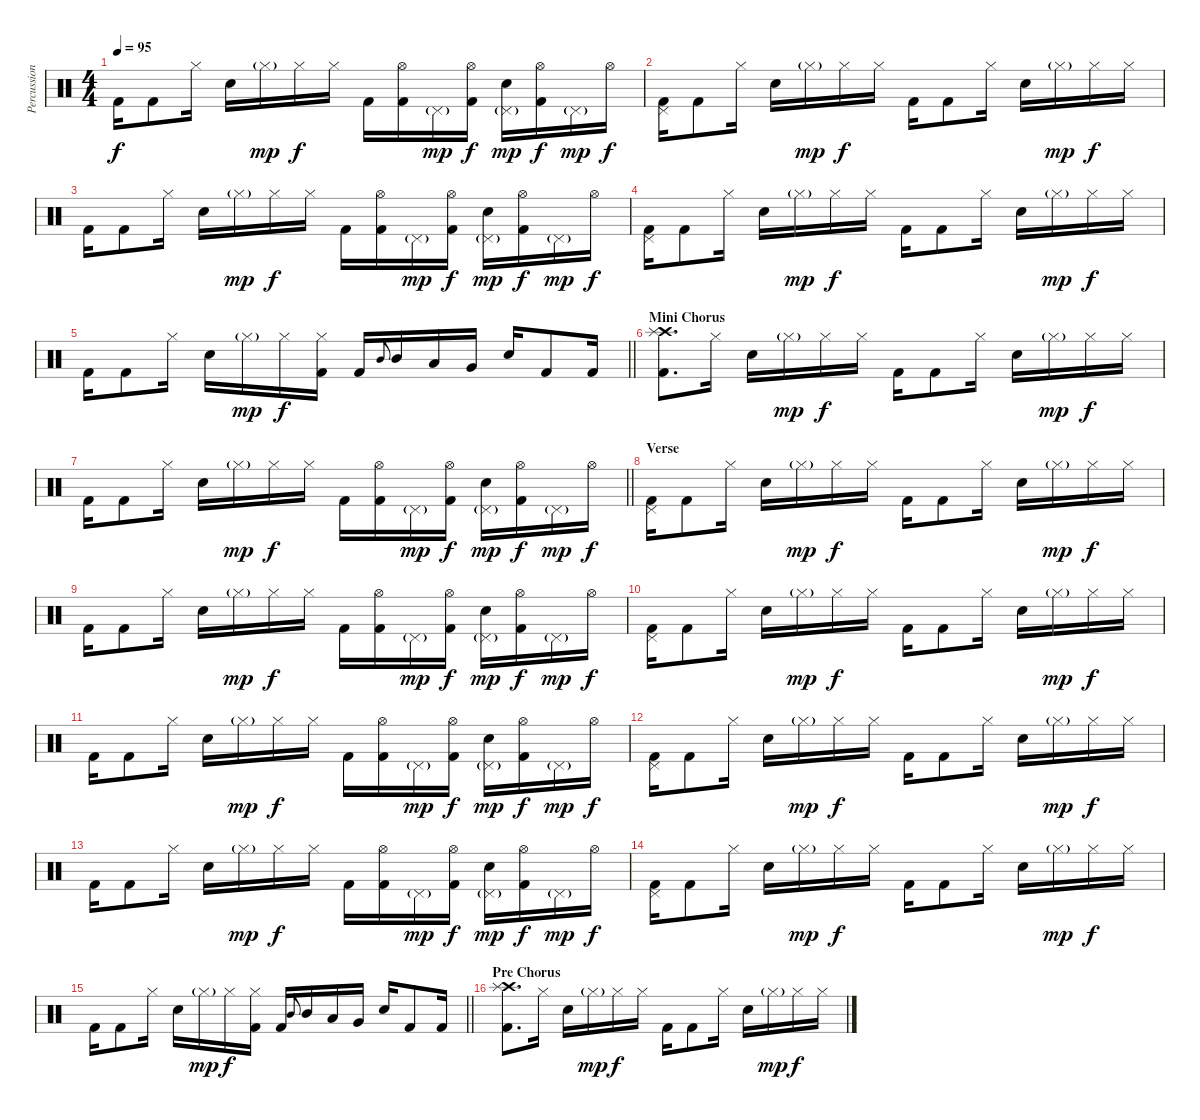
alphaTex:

\track ("Percussion" "Percussion") {instrument percussion}
\staff {score}
\articulation defaults
\ts (4 4)
\tempo 95
\clef neutral
\ks c "Kick (hit) 2".16{dy f} "Kick (hit) 2".8 "Hi-Hat (closed)".16 "Electric Snare (hit)".16 "Hi-Hat (closed)"{g}.16{dy mp} "Hi-Hat (closed)".16{dy f} "Hi-Hat (closed)".16 "Kick (hit) 2".16
("Hi-Hat (open)" "Kick (hit) 2").16 "Pedal Hi-Hat (hit)"{g}.16{dy mp} ("Hi-Hat (open)" "Kick (hit) 2").16{dy f} ("Pedal Hi-Hat (hit)"{g} "Electric Snare (hit)").16{dy mp} ("Hi-Hat (open)" "Kick (hit) 2").16{dy f} "Pedal Hi-Hat (hit)"{g}.16{dy mp} "Hi-Hat (open)".16{dy f} |
("Pedal Hi-Hat (hit)" "Kick (hit) 2").16 "Kick (hit) 2".8 "Hi-Hat (closed)".16 "Electric Snare (hit)".16 "Hi-Hat (closed)"{g}.16{dy mp} "Hi-Hat (closed)".16{dy f} "Hi-Hat (closed)".16 "Kick (hit) 2".16 "Kick (hit) 2".8 "Hi-Hat (closed)".16 "Electric Snare (hit)".16 "Hi-Hat (closed)"{g}.16{dy mp} "Hi-Hat (closed)".16{dy f} "Hi-Hat (closed)".16 |
"Kick (hit) 2".16 "Kick (hit) 2".8 "Hi-Hat (closed)".16 "Electric Snare (hit)".16 "Hi-Hat (closed)"{g}.16{dy mp} "Hi-Hat (closed)".16{dy f} "Hi-Hat (closed)".16 "Kick (hit) 2".16 ("Hi-Hat (open)" "Kick (hit) 2").16 "Pedal Hi-Hat (hit)"{g}.16{dy mp} ("Hi-Hat (open)" "Kick (hit) 2").16{dy f} ("Pedal Hi-Hat (hit)"{g} "Electric Snare (hit)").16{dy mp} ("Hi-Hat (open)" "Kick (hit) 2").16{dy f} "Pedal Hi-Hat (hit)"{g}.16{dy mp} "Hi-Hat (open)".16{dy f} |
("Pedal Hi-Hat (hit)" "Kick (hit) 2").16 "Kick (hit) 2".8 "Hi-Hat (closed)".16 "Electric Snare (hit)".16 "Hi-Hat (closed)"{g}.16{dy mp} "Hi-Hat (closed)".16{dy f} "Hi-Hat (closed)".16 "Kick (hit) 2".16 "Kick (hit) 2".8 "Hi-Hat (closed)".16 "Electric Snare (hit)".16 "Hi-Hat (closed)"{g}.16{dy mp} "Hi-Hat (closed)".16{dy f} "Hi-Hat (closed)".16 |
\barLineRight lightlight "Kick (hit) 2".16 "Kick (hit) 2".8 "Hi-Hat (closed)".16 "Electric Snare (hit)".16 "Hi-Hat (closed)"{g}.16{dy mp} "Hi-Hat (closed)".16{dy f}
("Hi-Hat (closed)" "Kick (hit) 2").16 "Kick (hit) 2".16 "Mid Tom (hit)".8{gr onbeat} "Mid Tom (hit)".16 "Low Tom (hit)".16 "Very Low Tom (hit)".16 "Electric Snare (hit)".16 "Kick (hit) 2".8 "Kick (hit) 2".16 |
\section ("" "Mini Chorus")
("Crash high (hit)" "Splash (hit)" "Kick (hit) 2").8{d} "Hi-Hat (closed)".16 "Electric Snare (hit)".16 "Hi-Hat (closed)"{g}.16{dy mp} "Hi-Hat (closed)".16{dy f} "Hi-Hat (closed)".16 "Kick (hit) 2".16 "Kick (hit) 2".8 "Hi-Hat (closed)".16 "Electric Snare (hit)".16 "Hi-Hat (closed)"{g}.16{dy mp} "Hi-Hat (closed)".16{dy f} "Hi-Hat (closed)".16 |
\barLineRight lightlight "Kick (hit) 2".16 "Kick (hit) 2".8 "Hi-Hat (closed)".16 "Electric Snare (hit)".16 "Hi-Hat (closed)"{g}.16{dy mp} "Hi-Hat (closed)".16{dy f} "Hi-Hat (closed)".16 "Kick (hit) 2".16
("Hi-Hat (open)" "Kick (hit) 2").16 "Pedal Hi-Hat (hit)"{g}.16{dy mp} ("Hi-Hat (open)" "Kick (hit) 2").16{dy f} ("Pedal Hi-Hat (hit)"{g} "Electric Snare (hit)").16{dy mp} ("Hi-Hat (open)" "Kick (hit) 2").16{dy f} "Pedal Hi-Hat (hit)"{g}.16{dy mp} "Hi-Hat (open)".16{dy f} |
\section ("" "Verse")
("Pedal Hi-Hat (hit)" "Kick (hit) 2").16 "Kick (hit) 2".8 "Hi-Hat (closed)".16 "Electric Snare (hit)".16 "Hi-Hat (closed)"{g}.16{dy mp} "Hi-Hat (closed)".16{dy f} "Hi-Hat (closed)".16 "Kick (hit) 2".16 "Kick (hit) 2".8 "Hi-Hat (closed)".16 "Electric Snare (hit)".16 "Hi-Hat (closed)"{g}.16{dy mp} "Hi-Hat (closed)".16{dy f} "Hi-Hat (closed)".16 |
"Kick (hit) 2".16 "Kick (hit) 2".8 "Hi-Hat (closed)".16 "Electric Snare (hit)".16 "Hi-Hat (closed)"{g}.16{dy mp} "Hi-Hat (closed)".16{dy f} "Hi-Hat (closed)".16 "Kick (hit) 2".16 ("Hi-Hat (open)" "Kick (hit) 2").16 "Pedal Hi-Hat (hit)"{g}.16{dy mp} ("Hi-Hat (open)" "Kick (hit) 2").16{dy f} ("Pedal Hi-Hat (hit)"{g} "Electric Snare (hit)").16{dy mp} ("Hi-Hat (open)" "Kick (hit) 2").16{dy f} "Pedal Hi-Hat (hit)"{g}.16{dy mp} "Hi-Hat (open)".16{dy f} |
("Pedal Hi-Hat (hit)" "Kick (hit) 2").16 "Kick (hit) 2".8 "Hi-Hat (closed)".16 "Electric Snare (hit)".16 "Hi-Hat (closed)"{g}.16{dy mp} "Hi-Hat (closed)".16{dy f} "Hi-Hat (closed)".16 "Kick (hit) 2".16 "Kick (hit) 2".8 "Hi-Hat (closed)".16 "Electric Snare (hit)".16 "Hi-Hat (closed)"{g}.16{dy mp} "Hi-Hat (closed)".16{dy f} "Hi-Hat (closed)".16 |
"Kick (hit) 2".16 "Kick (hit) 2".8 "Hi-Hat (closed)".16 "Electric Snare (hit)".16 "Hi-Hat (closed)"{g}.16{dy mp} "Hi-Hat (closed)".16{dy f} "Hi-Hat (closed)".16 "Kick (hit) 2".16 ("Hi-Hat (open)" "Kick (hit) 2").16 "Pedal Hi-Hat (hit)"{g}.16{dy mp} ("Hi-Hat (open)" "Kick (hit) 2").16{dy f} ("Pedal Hi-Hat (hit)"{g} "Electric Snare (hit)").16{dy mp} ("Hi-Hat (open)" "Kick (hit) 2").16{dy f} "Pedal Hi-Hat (hit)"{g}.16{dy mp} "Hi-Hat (open)".16{dy f} |
("Pedal Hi-Hat (hit)" "Kick (hit) 2").16 "Kick (hit) 2".8 "Hi-Hat (closed)".16 "Electric Snare (hit)".16 "Hi-Hat (closed)"{g}.16{dy mp} "Hi-Hat (closed)".16{dy f} "Hi-Hat (closed)".16 "Kick (hit) 2".16 "Kick (hit) 2".8 "Hi-Hat (closed)".16 "Electric Snare (hit)".16 "Hi-Hat (closed)"{g}.16{dy mp} "Hi-Hat (closed)".16{dy f} "Hi-Hat (closed)".16 |
"Kick (hit) 2".16 "Kick (hit) 2".8 "Hi-Hat (closed)".16 "Electric Snare (hit)".16 "Hi-Hat (closed)"{g}.16{dy mp} "Hi-Hat (closed)".16{dy f} "Hi-Hat (closed)".16 "Kick (hit) 2".16 ("Hi-Hat (open)" "Kick (hit) 2").16 "Pedal Hi-Hat (hit)"{g}.16{dy mp} ("Hi-Hat (open)" "Kick (hit) 2").16{dy f} ("Pedal Hi-Hat (hit)"{g} "Electric Snare (hit)").16{dy mp} ("Hi-Hat (open)" "Kick (hit) 2").16{dy f} "Pedal Hi-Hat (hit)"{g}.16{dy mp} "Hi-Hat (open)".16{dy f} |
("Pedal Hi-Hat (hit)" "Kick (hit) 2").16 "Kick (hit) 2".8 "Hi-Hat (closed)".16 "Electric Snare (hit)".16 "Hi-Hat (closed)"{g}.16{dy mp} "Hi-Hat (closed)".16{dy f} "Hi-Hat (closed)".16 "Kick (hit) 2".16 "Kick (hit) 2".8 "Hi-Hat (closed)".16 "Electric Snare (hit)".16 "Hi-Hat (closed)"{g}.16{dy mp} "Hi-Hat (closed)".16{dy f} "Hi-Hat (closed)".16 |
\barLineRight lightlight "Kick (hit) 2".16 "Kick (hit) 2".8 "Hi-Hat (closed)".16 "Electric Snare (hit)".16 "Hi-Hat (closed)"{g}.16{dy mp} "Hi-Hat (closed)".16{dy f}
("Hi-Hat (closed)" "Kick (hit) 2").16 "Kick (hit) 2".16 "Mid Tom (hit)".8{gr onbeat} "Mid Tom (hit)".16 "Low Tom (hit)".16 "Very Low Tom (hit)".16 "Electric Snare (hit)".16 "Kick (hit) 2".8 "Kick (hit) 2".16 |
\section ("" "Pre Chorus")
("Crash high (hit)" "Splash (hit)" "Kick (hit) 2").8{d} "Hi-Hat (closed)".16 "Electric Snare (hit)".16 "Hi-Hat (closed)"{g}.16{dy mp} "Hi-Hat (closed)".16{dy f} "Hi-Hat (closed)".16 "Kick (hit) 2".16 "Kick (hit) 2".8 "Hi-Hat (closed)".16 "Electric Snare (hit)".16 "Hi-Hat (closed)"{g}.16{dy mp} "Hi-Hat (closed)".16{dy f} "Hi-Hat (closed)".16
